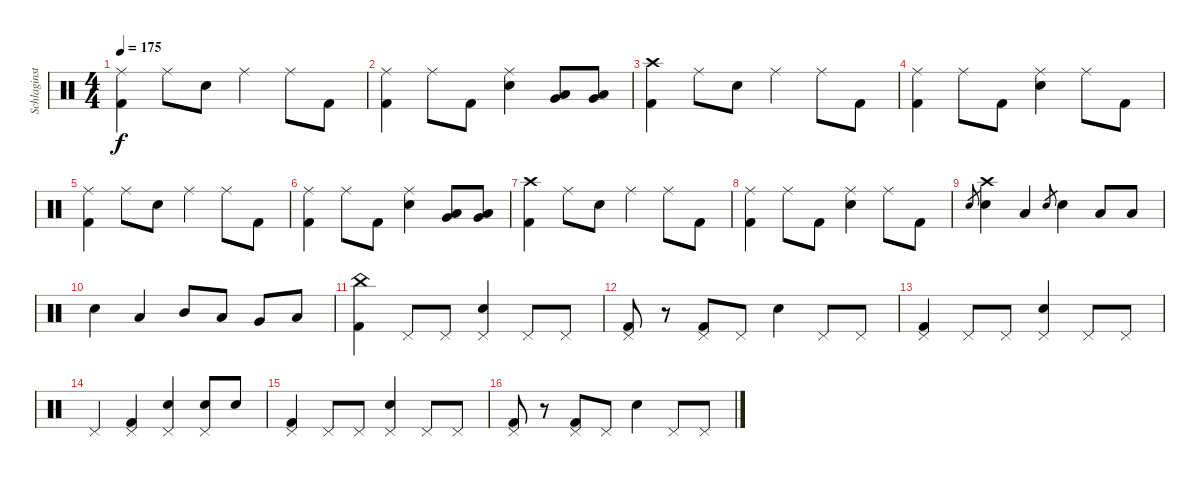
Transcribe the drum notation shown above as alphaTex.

\track ("Schlaginstrumente - Auswahl" "Schlaginst") {instrument percussion}
\staff {score}
\articulation defaults
\ts (4 4)
\tempo 175
\clef neutral
\ks c
("Kick (hit) 2" "Ride (middle)").4{dy f} "Ride (middle)".8 "Electric Snare (hit)".8 "Ride (middle)".4 "Ride (middle)".8 "Kick (hit) 2".8 |
("Kick (hit) 2" "Ride (middle)").4 "Ride (middle)".8 "Kick (hit) 2".8 ("Electric Snare (hit)" "Ride (middle)").4 ("Very Low Tom (hit)" "Low Floor Tom (hit)").8 ("Low Floor Tom (hit)" "Very Low Tom (hit)").8 |
("Kick (hit) 2" "Crash high (hit)").4 "Ride (middle)".8 "Electric Snare (hit)".8 "Ride (middle)".4 "Ride (middle)".8 "Kick (hit) 2".8 |
("Kick (hit) 2" "Ride (middle)").4 "Ride (middle)".8 "Kick (hit) 2".8 ("Electric Snare (hit)" "Ride (middle)").4 "Ride (middle)".8 "Kick (hit) 2".8 |
("Kick (hit) 2" "Ride (middle)").4 "Ride (middle)".8 "Electric Snare (hit)".8 "Ride (middle)".4 "Ride (middle)".8 "Kick (hit) 2".8 |
("Kick (hit) 2" "Ride (middle)").4 "Ride (middle)".8 "Kick (hit) 2".8 ("Electric Snare (hit)" "Ride (middle)").4 ("Very Low Tom (hit)" "Low Floor Tom (hit)").8 ("Low Floor Tom (hit)" "Very Low Tom (hit)").8 |
("Kick (hit) 2" "Crash high (hit)").4 "Ride (middle)".8 "Electric Snare (hit)".8 "Ride (middle)".4 "Ride (middle)".8 "Kick (hit) 2".8 |
("Kick (hit) 2" "Ride (middle)").4 "Ride (middle)".8 "Kick (hit) 2".8 ("Electric Snare (hit)" "Ride (middle)").4 "Ride (middle)".8 "Kick (hit) 2".8 |
"Electric Snare (hit)".8{gr} ("Electric Snare (hit)" "Crash high (hit)").4 "Low Floor Tom (hit)".4 "Electric Snare (hit)".8{gr} "Electric Snare (hit)".4 "Low Floor Tom (hit)".8 "Low Floor Tom (hit)".8 |
"Electric Snare (hit)".4 "Low Tom (hit)".4 "Mid Tom (hit)".8 "Low Tom (hit)".8 "Very Low Tom (hit)".8 "Low Floor Tom (hit)".8 |
("China (hit)" "Kick (hit) 2").4 "Pedal Hi-Hat (hit)".8 "Pedal Hi-Hat (hit)".8 ("Pedal Hi-Hat (hit)" "Electric Snare (hit)").4 "Pedal Hi-Hat (hit)".8 "Pedal Hi-Hat (hit)".8 |
("Pedal Hi-Hat (hit)" "Kick (hit) 2").8 r.8 ("Kick (hit) 2" "Pedal Hi-Hat (hit)").8 "Pedal Hi-Hat (hit)".8 "Electric Snare (hit)".4 "Pedal Hi-Hat (hit)".8 "Pedal Hi-Hat (hit)".8 |
("Pedal Hi-Hat (hit)" "Kick (hit) 2").4 "Pedal Hi-Hat (hit)".8 "Pedal Hi-Hat (hit)".8 ("Pedal Hi-Hat (hit)" "Electric Snare (hit)").4 "Pedal Hi-Hat (hit)".8 "Pedal Hi-Hat (hit)".8 |
"Pedal Hi-Hat (hit)".4 ("Kick (hit) 2" "Pedal Hi-Hat (hit)").4 ("Electric Snare (hit)" "Pedal Hi-Hat (hit)").4 ("Electric Snare (hit)" "Pedal Hi-Hat (hit)").8 "Electric Snare (hit)".8 |
("Pedal Hi-Hat (hit)" "Kick (hit) 2").4 "Pedal Hi-Hat (hit)".8 "Pedal Hi-Hat (hit)".8 ("Pedal Hi-Hat (hit)" "Electric Snare (hit)").4 "Pedal Hi-Hat (hit)".8 "Pedal Hi-Hat (hit)".8 |
("Pedal Hi-Hat (hit)" "Kick (hit) 2").8 r.8 ("Kick (hit) 2" "Pedal Hi-Hat (hit)").8 "Pedal Hi-Hat (hit)".8 "Electric Snare (hit)".4 "Pedal Hi-Hat (hit)".8 "Pedal Hi-Hat (hit)".8
